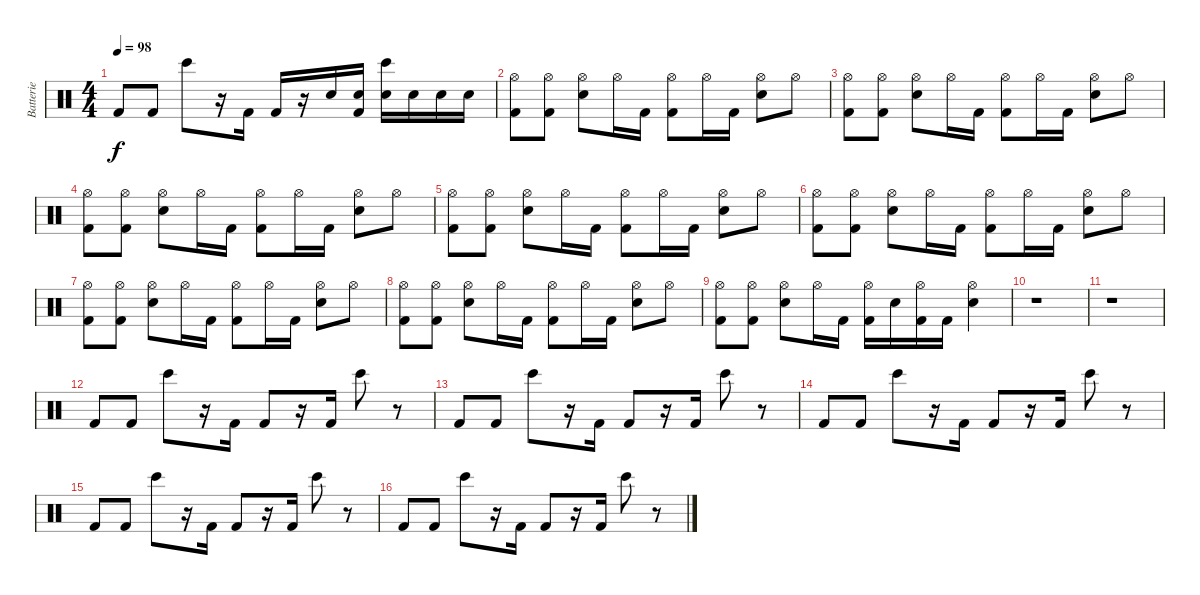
\track ("Batterie" "Batterie") {instrument percussion}
\staff {score}
\articulation defaults
\ts (4 4)
\tempo 98
\clef neutral
\ks c "Kick (hit) 2".8{dy f} "Kick (hit) 2".8 "Bongo High (hit)".8
r.16 "Kick (hit) 2".16 "Kick (hit) 2".16 r.16 "Snare (hit) 2".16 ("Snare (hit) 2" "Kick (hit) 2").16 ("Snare (hit) 2" "Bongo High (hit)").16 "Snare (hit) 2".16 "Snare (hit) 2".16 "Snare (hit) 2".16 |
("Hi-Hat (open)" "Kick (hit) 2").8 ("Hi-Hat (open)" "Kick (hit) 2").8 ("Hi-Hat (open)" "Snare (hit) 2").8 "Hi-Hat (open)".16 "Kick (hit) 2".16 ("Hi-Hat (open)" "Kick (hit) 2").8 "Hi-Hat (open)".16 "Kick (hit) 2".16 ("Hi-Hat (open)" "Snare (hit) 2").8 "Hi-Hat (open)".8 |
("Hi-Hat (open)" "Kick (hit) 2").8 ("Hi-Hat (open)" "Kick (hit) 2").8 ("Hi-Hat (open)" "Snare (hit) 2").8 "Hi-Hat (open)".16 "Kick (hit) 2".16 ("Hi-Hat (open)" "Kick (hit) 2").8 "Hi-Hat (open)".16 "Kick (hit) 2".16 ("Hi-Hat (open)" "Snare (hit) 2").8 "Hi-Hat (open)".8 |
("Hi-Hat (open)" "Kick (hit) 2").8 ("Hi-Hat (open)" "Kick (hit) 2").8 ("Hi-Hat (open)" "Snare (hit) 2").8 "Hi-Hat (open)".16 "Kick (hit) 2".16 ("Hi-Hat (open)" "Kick (hit) 2").8 "Hi-Hat (open)".16 "Kick (hit) 2".16 ("Hi-Hat (open)" "Snare (hit) 2").8 "Hi-Hat (open)".8 |
("Hi-Hat (open)" "Kick (hit) 2").8 ("Hi-Hat (open)" "Kick (hit) 2").8 ("Hi-Hat (open)" "Snare (hit) 2").8 "Hi-Hat (open)".16 "Kick (hit) 2".16 ("Hi-Hat (open)" "Kick (hit) 2").8 "Hi-Hat (open)".16 "Kick (hit) 2".16 ("Hi-Hat (open)" "Snare (hit) 2").8 "Hi-Hat (open)".8 |
("Hi-Hat (open)" "Kick (hit) 2").8 ("Hi-Hat (open)" "Kick (hit) 2").8 ("Hi-Hat (open)" "Snare (hit) 2").8 "Hi-Hat (open)".16 "Kick (hit) 2".16 ("Hi-Hat (open)" "Kick (hit) 2").8 "Hi-Hat (open)".16 "Kick (hit) 2".16 ("Hi-Hat (open)" "Snare (hit) 2").8 "Hi-Hat (open)".8 |
("Hi-Hat (open)" "Kick (hit) 2").8 ("Hi-Hat (open)" "Kick (hit) 2").8 ("Hi-Hat (open)" "Snare (hit) 2").8 "Hi-Hat (open)".16 "Kick (hit) 2".16 ("Hi-Hat (open)" "Kick (hit) 2").8 "Hi-Hat (open)".16 "Kick (hit) 2".16 ("Hi-Hat (open)" "Snare (hit) 2").8 "Hi-Hat (open)".8 |
("Hi-Hat (open)" "Kick (hit) 2").8 ("Hi-Hat (open)" "Kick (hit) 2").8 ("Hi-Hat (open)" "Snare (hit) 2").8 "Hi-Hat (open)".16 "Kick (hit) 2".16 ("Hi-Hat (open)" "Kick (hit) 2").8 "Hi-Hat (open)".16 "Kick (hit) 2".16 ("Hi-Hat (open)" "Snare (hit) 2").8 "Hi-Hat (open)".8 |
("Hi-Hat (open)" "Kick (hit) 2").8 ("Hi-Hat (open)" "Kick (hit) 2").8 ("Hi-Hat (open)" "Snare (hit) 2").8 "Hi-Hat (open)".16 "Kick (hit) 2".16 ("Hi-Hat (open)" "Kick (hit) 2").16 "Snare (hit) 2".16 ("Hi-Hat (open)" "Kick (hit) 2").16 "Kick (hit) 2".16 ("Hi-Hat (open)" "Snare (hit) 2").4 |
r.1 |
r.1 |
"Kick (hit) 2".8 "Kick (hit) 2".8 "Bongo High (hit)".8 r.16 "Kick (hit) 2".16 "Kick (hit) 2".8 r.16 "Kick (hit) 2".16 "Bongo High (hit)".8 r.8 |
"Kick (hit) 2".8 "Kick (hit) 2".8 "Bongo High (hit)".8 r.16 "Kick (hit) 2".16 "Kick (hit) 2".8 r.16 "Kick (hit) 2".16 "Bongo High (hit)".8 r.8 |
"Kick (hit) 2".8 "Kick (hit) 2".8 "Bongo High (hit)".8 r.16 "Kick (hit) 2".16 "Kick (hit) 2".8 r.16 "Kick (hit) 2".16 "Bongo High (hit)".8 r.8 |
"Kick (hit) 2".8 "Kick (hit) 2".8 "Bongo High (hit)".8 r.16 "Kick (hit) 2".16 "Kick (hit) 2".8 r.16 "Kick (hit) 2".16 "Bongo High (hit)".8 r.8 |
"Kick (hit) 2".8 "Kick (hit) 2".8 "Bongo High (hit)".8 r.16 "Kick (hit) 2".16 "Kick (hit) 2".8 r.16 "Kick (hit) 2".16 "Bongo High (hit)".8 r.8
